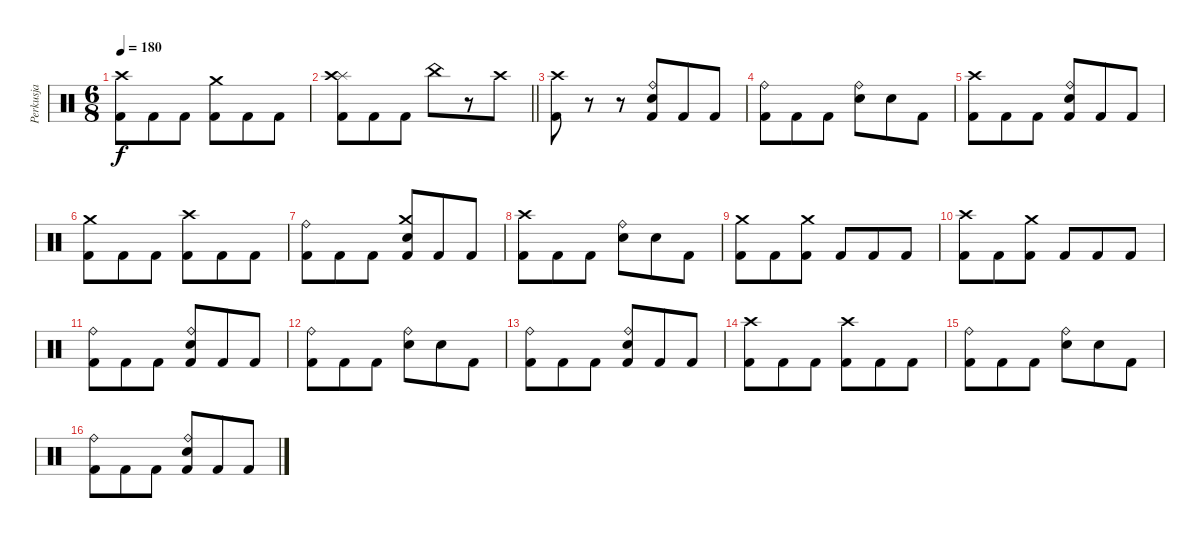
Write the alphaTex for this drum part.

\track ("Perkusja" "Perkusja") {instrument percussion}
\staff {score}
\articulation defaults
\ts (6 8)
\tempo 180
\clef neutral
\ks c
("Crash high (hit)" "Kick (hit) 2").8{dy f} "Kick (hit) 2".8 "Kick (hit) 2".8 ("Crash medium (hit)" "Kick (hit) 2").8 "Kick (hit) 2".8 "Kick (hit) 2".8 |
\barLineRight lightlight
("Splash (hit)" "Crash high (hit)" "Kick (hit) 2").8 "Kick (hit) 2".8 "Kick (hit) 2".8 "China (hit)".8 r.8 "Crash high (hit)".8 |
("Crash high (hit)" "Kick (hit) 2").8 r.8 r.8 ("Ride (bell)" "Snare (hit) 2" "Kick (hit) 2").8 "Kick (hit) 2".8 "Kick (hit) 2".8 |
("Ride (bell)" "Kick (hit) 2").8 "Kick (hit) 2".8 "Kick (hit) 2".8 ("Ride (bell)" "Snare (hit) 2").8 "Snare (hit) 2".8 "Kick (hit) 2".8 |
("Crash high (hit)" "Kick (hit) 2").8 "Kick (hit) 2".8 "Kick (hit) 2".8 ("Ride (bell)" "Snare (hit) 2" "Kick (hit) 2").8 "Kick (hit) 2".8 "Kick (hit) 2".8 |
("Crash medium (hit)" "Kick (hit) 2").8 "Kick (hit) 2".8 "Kick (hit) 2".8 ("Crash high (hit)" "Kick (hit) 2").8 "Kick (hit) 2".8 "Kick (hit) 2".8 |
("Ride (bell)" "Kick (hit) 2").8 "Kick (hit) 2".8 "Kick (hit) 2".8 ("Crash medium (hit)" "Snare (hit) 2" "Kick (hit) 2").8 "Kick (hit) 2".8 "Kick (hit) 2".8 |
("Crash high (hit)" "Kick (hit) 2").8 "Kick (hit) 2".8 "Kick (hit) 2".8 ("Ride (bell)" "Snare (hit) 2").8 "Snare (hit) 2".8 "Kick (hit) 2".8 |
("Crash medium (hit)" "Kick (hit) 2").8 "Kick (hit) 2".8 ("Crash medium (hit)" "Kick (hit) 2").8 "Kick (hit) 2".8 "Kick (hit) 2".8 "Kick (hit) 2".8 |
("Crash high (hit)" "Kick (hit) 2").8 "Kick (hit) 2".8 ("Crash medium (hit)" "Kick (hit) 2").8 "Kick (hit) 2".8 "Kick (hit) 2".8 "Kick (hit) 2".8 |
("Ride (bell)" "Kick (hit) 2").8 "Kick (hit) 2".8 "Kick (hit) 2".8 ("Ride (bell)" "Snare (hit) 2" "Kick (hit) 2").8 "Kick (hit) 2".8 "Kick (hit) 2".8 |
("Ride (bell)" "Kick (hit) 2").8 "Kick (hit) 2".8 "Kick (hit) 2".8 ("Ride (bell)" "Snare (hit) 2").8 "Snare (hit) 2".8 "Kick (hit) 2".8 |
("Ride (bell)" "Kick (hit) 2").8 "Kick (hit) 2".8 "Kick (hit) 2".8 ("Ride (bell)" "Snare (hit) 2" "Kick (hit) 2").8 "Kick (hit) 2".8 "Kick (hit) 2".8 |
("Crash high (hit)" "Kick (hit) 2").8 "Kick (hit) 2".8 "Kick (hit) 2".8 ("Crash high (hit)" "Kick (hit) 2").8 "Kick (hit) 2".8 "Kick (hit) 2".8 |
("Ride (bell)" "Kick (hit) 2").8 "Kick (hit) 2".8 "Kick (hit) 2".8 ("Ride (bell)" "Snare (hit) 2").8 "Snare (hit) 2".8 "Kick (hit) 2".8 |
("Ride (bell)" "Kick (hit) 2").8 "Kick (hit) 2".8 "Kick (hit) 2".8 ("Ride (bell)" "Snare (hit) 2" "Kick (hit) 2").8 "Kick (hit) 2".8 "Kick (hit) 2".8
